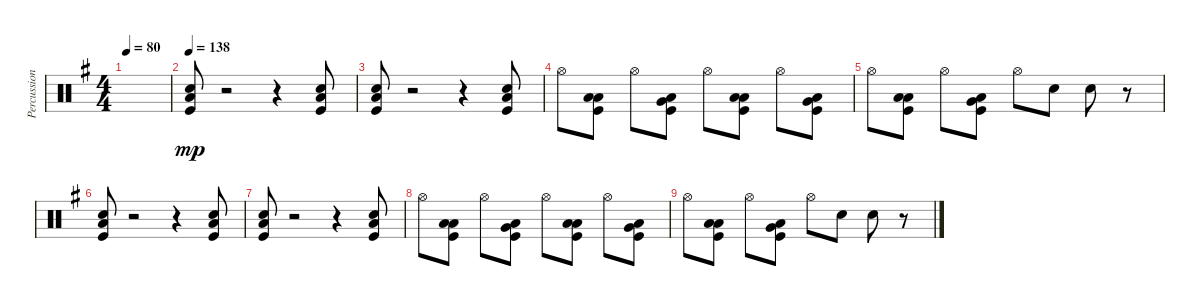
\track ("Percussion" "Percussion") {instrument percussion}
\staff {score}
\articulation defaults
\ts (4 4)
\tempo 80
\clef neutral
\ks g
|
\tempo 138
("Snare (hit) 2" "Low Floor Tom (hit)" "Kick (hit)").8{dy mp} r.2 r.4 ("Snare (hit) 2" "Low Floor Tom (hit)" "Kick (hit)").8 |
("Snare (hit) 2" "Low Floor Tom (hit)" "Kick (hit)").8 r.2 r.4 ("Snare (hit) 2" "Low Floor Tom (hit)" "Kick (hit)").8 |
"Hi-Hat (open)".8 ("Low Tom (hit)" "Low Floor Tom (hit)" "Kick (hit)").8 "Hi-Hat (open)".8 ("Very Low Tom (hit)" "Low Floor Tom (hit)" "Kick (hit)").8 "Hi-Hat (open)".8 ("Low Floor Tom (hit)" "Low Floor Tom (hit)" "Kick (hit)").8 "Hi-Hat (open)".8 ("Very Low Tom (hit)" "Low Floor Tom (hit)" "Kick (hit)").8 |
"Hi-Hat (open)".8 ("Low Tom (hit)" "Low Floor Tom (hit)" "Kick (hit)").8 "Hi-Hat (open)".8 ("Very Low Tom (hit)" "Low Floor Tom (hit)" "Kick (hit)").8 "Hi-Hat (open)".8 "Snare (hit) 2".8 "Snare (hit) 2".8 r.8 |
("Snare (hit) 2" "Low Floor Tom (hit)" "Kick (hit)").8 r.2 r.4 ("Snare (hit) 2" "Low Floor Tom (hit)" "Kick (hit)").8 |
("Snare (hit) 2" "Low Floor Tom (hit)" "Kick (hit)").8 r.2 r.4 ("Snare (hit) 2" "Low Floor Tom (hit)" "Kick (hit)").8 |
"Hi-Hat (open)".8 ("Low Tom (hit)" "Low Floor Tom (hit)" "Kick (hit)").8 "Hi-Hat (open)".8 ("Very Low Tom (hit)" "Low Floor Tom (hit)" "Kick (hit)").8 "Hi-Hat (open)".8 ("Low Floor Tom (hit)" "Low Floor Tom (hit)" "Kick (hit)").8 "Hi-Hat (open)".8 ("Very Low Tom (hit)" "Low Floor Tom (hit)" "Kick (hit)").8 |
"Hi-Hat (open)".8 ("Low Tom (hit)" "Low Floor Tom (hit)" "Kick (hit)").8 "Hi-Hat (open)".8 ("Very Low Tom (hit)" "Low Floor Tom (hit)" "Kick (hit)").8 "Hi-Hat (open)".8 "Snare (hit) 2".8 "Snare (hit) 2".8 r.8
